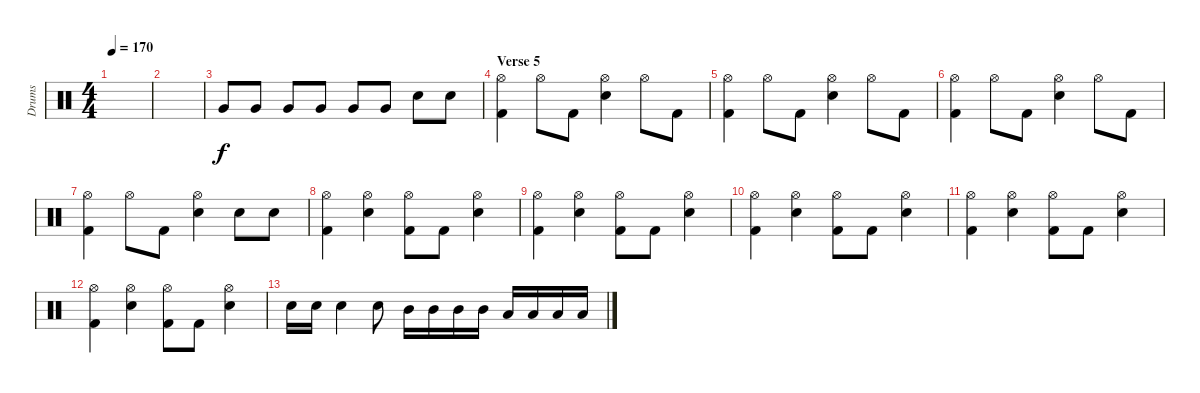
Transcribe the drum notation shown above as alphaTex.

\track ("Drums" "Drums") {instrument percussion}
\staff {score}
\articulation defaults
\ts (4 4)
\tempo 170
\clef neutral
\ks c
|
|
"Very Low Tom (hit)".8 "Very Low Tom (hit)".8 "Very Low Tom (hit)".8 "Very Low Tom (hit)".8 "Very Low Tom (hit)".8 "Very Low Tom (hit)".8 "Snare (hit) 2".8 "Snare (hit) 2".8 |
\section ("" "Verse 5")
("Hi-Hat (open)" "Kick (hit) 2").4 "Hi-Hat (open)".8 "Kick (hit) 2".8 ("Hi-Hat (open)" "Snare (hit) 2").4 "Hi-Hat (open)".8 "Kick (hit) 2".8 |
("Hi-Hat (open)" "Kick (hit) 2").4 "Hi-Hat (open)".8 "Kick (hit) 2".8 ("Hi-Hat (open)" "Snare (hit) 2").4 "Hi-Hat (open)".8 "Kick (hit) 2".8 |
("Hi-Hat (open)" "Kick (hit) 2").4 "Hi-Hat (open)".8 "Kick (hit) 2".8 ("Hi-Hat (open)" "Snare (hit) 2").4 "Hi-Hat (open)".8 "Kick (hit) 2".8 |
("Hi-Hat (open)" "Kick (hit) 2").4 "Hi-Hat (open)".8 "Kick (hit) 2".8 ("Hi-Hat (open)" "Snare (hit) 2").4 "Snare (hit) 2".8 "Snare (hit) 2".8 |
("Hi-Hat (open)" "Kick (hit) 2").4 ("Hi-Hat (open)" "Snare (hit) 2").4 ("Hi-Hat (open)" "Kick (hit) 2").8 "Kick (hit) 2".8 ("Hi-Hat (open)" "Snare (hit) 2").4 |
("Hi-Hat (open)" "Kick (hit) 2").4 ("Hi-Hat (open)" "Snare (hit) 2").4 ("Hi-Hat (open)" "Kick (hit) 2").8 "Kick (hit) 2".8 ("Hi-Hat (open)" "Snare (hit) 2").4 |
("Hi-Hat (open)" "Kick (hit) 2").4 ("Hi-Hat (open)" "Snare (hit) 2").4 ("Hi-Hat (open)" "Kick (hit) 2").8 "Kick (hit) 2".8 ("Hi-Hat (open)" "Snare (hit) 2").4 |
("Hi-Hat (open)" "Kick (hit) 2").4 ("Hi-Hat (open)" "Snare (hit) 2").4 ("Hi-Hat (open)" "Kick (hit) 2").8 "Kick (hit) 2".8 ("Hi-Hat (open)" "Snare (hit) 2").4 |
("Hi-Hat (open)" "Kick (hit) 2").4 ("Hi-Hat (open)" "Snare (hit) 2").4 ("Hi-Hat (open)" "Kick (hit) 2").8 "Kick (hit) 2".8 ("Hi-Hat (open)" "Snare (hit) 2").4 |
"Snare (hit) 2".16 "Snare (hit) 2".16 "Snare (hit) 2".4 "Snare (hit) 2".8 "Mid Tom (hit)".16 "Mid Tom (hit)".16 "Mid Tom (hit)".16 "Mid Tom (hit)".16 "Low Tom (hit)".16 "Low Tom (hit)".16 "Low Tom (hit)".16 "Low Tom (hit)".16
